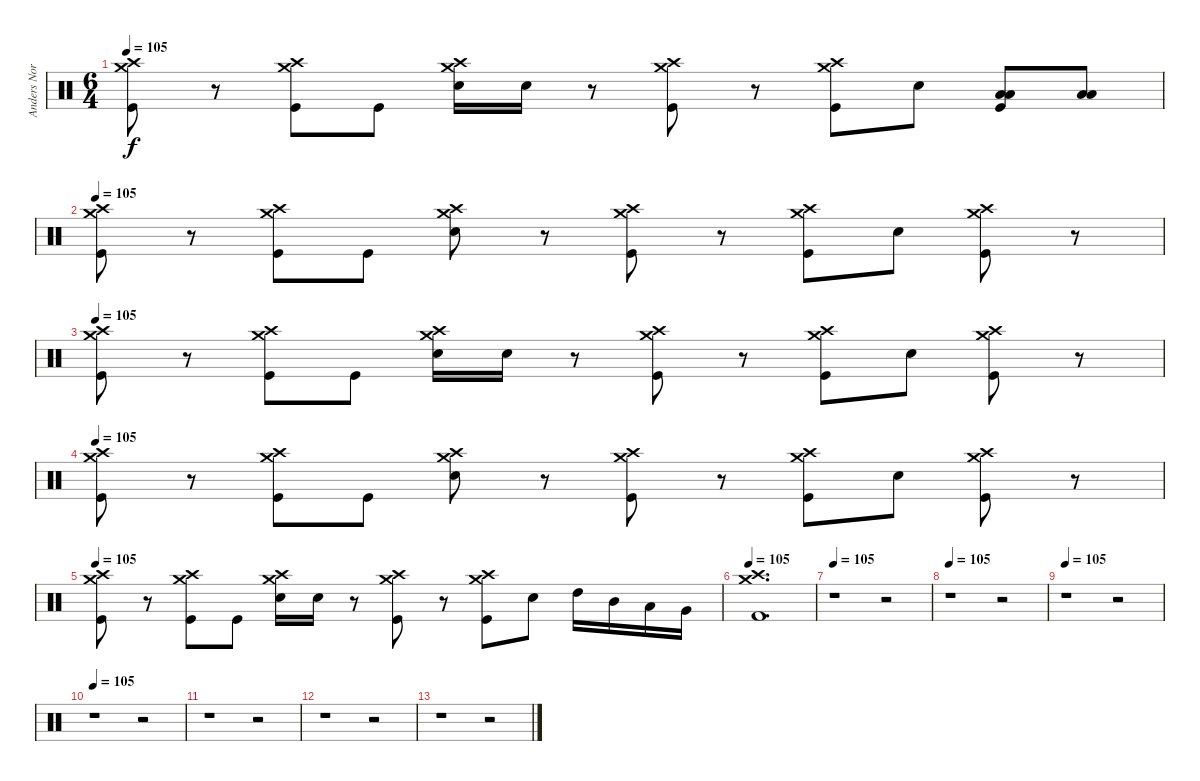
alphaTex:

\track ("Anders Nordin" "Anders Nor") {instrument percussion}
\staff {score}
\articulation defaults
\ts (6 4)
\tempo 105
\clef neutral
\ks c
("Crash high (hit)" "Crash medium (hit)" "Kick (hit)").8{dy f} r.8 ("Crash high (hit)" "Crash medium (hit)" "Kick (hit)").8 "Kick (hit)".8 ("Crash high (hit)" "Crash medium (hit)" "Electric Snare (hit)").16 "Electric Snare (hit)".16 r.8 ("Crash high (hit)" "Crash medium (hit)" "Kick (hit)").8 r.8 ("Crash high (hit)" "Crash medium (hit)" "Kick (hit)").8 "Electric Snare (hit)".8 ("Low Floor Tom (hit)" "Low Floor Tom (hit)" "Kick (hit)").8 ("Low Floor Tom (hit)" "Low Floor Tom (hit)").8 |
\tempo 105
("Crash high (hit)" "Crash medium (hit)" "Kick (hit)").8 r.8 ("Crash high (hit)" "Crash medium (hit)" "Kick (hit)").8 "Kick (hit)".8 ("Crash high (hit)" "Crash medium (hit)" "Electric Snare (hit)").8 r.8 ("Crash high (hit)" "Crash medium (hit)" "Kick (hit)").8 r.8 ("Crash high (hit)" "Crash medium (hit)" "Kick (hit)").8 "Electric Snare (hit)".8 ("Crash high (hit)" "Crash medium (hit)" "Kick (hit)").8 r.8 |
\tempo 105
("Crash high (hit)" "Crash medium (hit)" "Kick (hit)").8 r.8 ("Crash high (hit)" "Crash medium (hit)" "Kick (hit)").8 "Kick (hit)".8 ("Crash high (hit)" "Crash medium (hit)" "Electric Snare (hit)").16 "Electric Snare (hit)".16 r.8 ("Crash high (hit)" "Crash medium (hit)" "Kick (hit)").8 r.8 ("Crash high (hit)" "Crash medium (hit)" "Kick (hit)").8 "Electric Snare (hit)".8 ("Crash high (hit)" "Crash medium (hit)" "Kick (hit)").8 r.8 |
\tempo 105
("Crash high (hit)" "Crash medium (hit)" "Kick (hit)").8 r.8 ("Crash high (hit)" "Crash medium (hit)" "Kick (hit)").8 "Kick (hit)".8 ("Crash high (hit)" "Crash medium (hit)" "Electric Snare (hit)").8 r.8 ("Crash high (hit)" "Crash medium (hit)" "Kick (hit)").8 r.8 ("Crash high (hit)" "Crash medium (hit)" "Kick (hit)").8 "Electric Snare (hit)".8 ("Crash high (hit)" "Crash medium (hit)" "Kick (hit)").8 r.8 |
\tempo 105
("Crash high (hit)" "Crash medium (hit)" "Kick (hit)").8 r.8 ("Crash high (hit)" "Crash medium (hit)" "Kick (hit)").8 "Kick (hit)".8 ("Crash high (hit)" "Crash medium (hit)" "Electric Snare (hit)").16 "Electric Snare (hit)".16 r.8 ("Crash high (hit)" "Crash medium (hit)" "Kick (hit)").8 r.8 ("Crash high (hit)" "Crash medium (hit)" "Kick (hit)").8 "Electric Snare (hit)".8 "High Tom (hit)".16 "Mid Tom (hit)".16 "Low Tom (hit)".16 "Very Low Tom (hit)".16 |
\tempo 105
("Kick (hit) 2" "Crash medium (hit)" "Crash high (hit)").1{d} |
\tempo 105
r.1 r.2 |
\tempo 105
r.1 r.2 |
\tempo 105
r.1 r.2 |
\tempo 105
r.1 r.2 |
r.1 r.2 |
r.1 r.2 |
r.1 r.2
